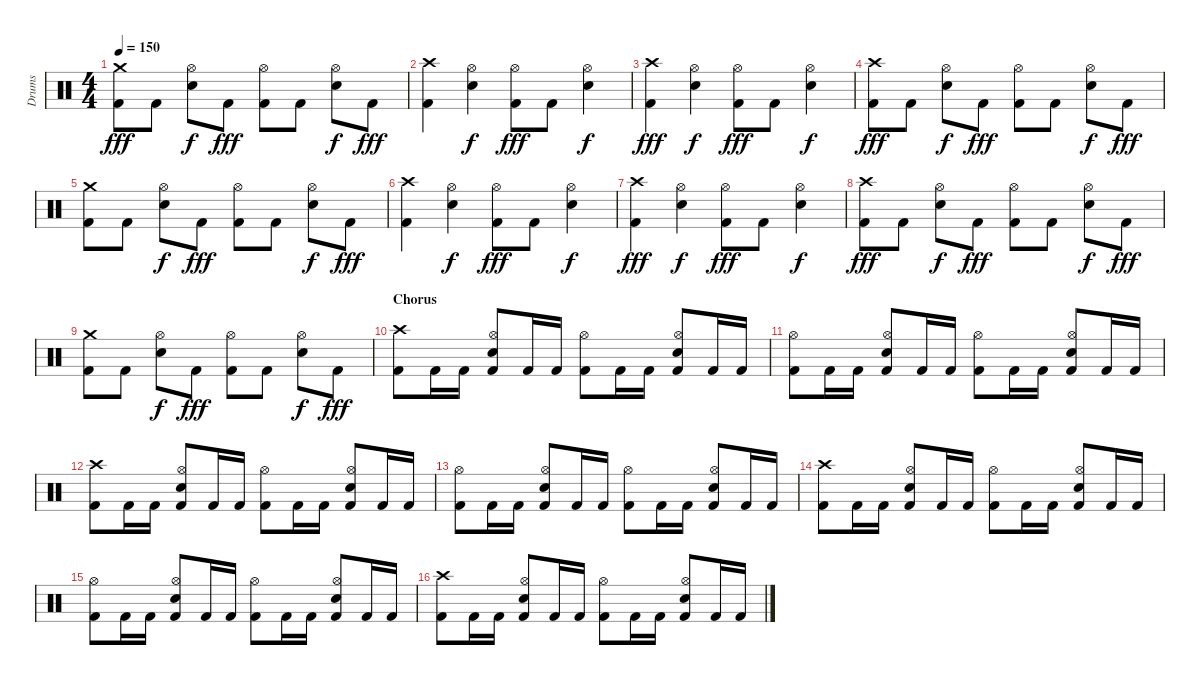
\track ("Drums" "Drums") {instrument percussion}
\staff {score}
\articulation defaults
\ts (4 4)
\tempo 150
\clef neutral
\ks c
("Crash medium (hit)" "Kick (hit) 2").8{dy fff} "Kick (hit) 2".8 ("Hi-Hat (open)" "Snare (hit) 2").8{dy f} "Kick (hit) 2".8{dy fff} ("Hi-Hat (open)" "Kick (hit) 2").8 "Kick (hit) 2".8 ("Hi-Hat (open)" "Snare (hit) 2").8{dy f} "Kick (hit) 2".8{dy fff} |
("Crash high (hit)" "Kick (hit) 2").4 ("Hi-Hat (open)" "Snare (hit) 2").4{dy f} ("Hi-Hat (open)" "Kick (hit) 2").8{dy fff} "Kick (hit) 2".8 ("Hi-Hat (open)" "Snare (hit) 2").4{dy f} |
("Crash high (hit)" "Kick (hit) 2").4{dy fff} ("Hi-Hat (open)" "Snare (hit) 2").4{dy f} ("Hi-Hat (open)" "Kick (hit) 2").8{dy fff} "Kick (hit) 2".8 ("Hi-Hat (open)" "Snare (hit) 2").4{dy f} |
("Crash high (hit)" "Kick (hit) 2").8{dy fff} "Kick (hit) 2".8 ("Hi-Hat (open)" "Snare (hit) 2").8{dy f} "Kick (hit) 2".8{dy fff} ("Hi-Hat (open)" "Kick (hit) 2").8 "Kick (hit) 2".8 ("Hi-Hat (open)" "Snare (hit) 2").8{dy f} "Kick (hit) 2".8{dy fff} |
("Crash medium (hit)" "Kick (hit) 2").8 "Kick (hit) 2".8 ("Hi-Hat (open)" "Snare (hit) 2").8{dy f} "Kick (hit) 2".8{dy fff} ("Hi-Hat (open)" "Kick (hit) 2").8 "Kick (hit) 2".8 ("Hi-Hat (open)" "Snare (hit) 2").8{dy f} "Kick (hit) 2".8{dy fff} |
("Crash high (hit)" "Kick (hit) 2").4 ("Hi-Hat (open)" "Snare (hit) 2").4{dy f} ("Hi-Hat (open)" "Kick (hit) 2").8{dy fff} "Kick (hit) 2".8 ("Hi-Hat (open)" "Snare (hit) 2").4{dy f} |
("Crash high (hit)" "Kick (hit) 2").4{dy fff} ("Hi-Hat (open)" "Snare (hit) 2").4{dy f} ("Hi-Hat (open)" "Kick (hit) 2").8{dy fff} "Kick (hit) 2".8 ("Hi-Hat (open)" "Snare (hit) 2").4{dy f} |
("Crash high (hit)" "Kick (hit) 2").8{dy fff} "Kick (hit) 2".8 ("Hi-Hat (open)" "Snare (hit) 2").8{dy f} "Kick (hit) 2".8{dy fff} ("Hi-Hat (open)" "Kick (hit) 2").8 "Kick (hit) 2".8 ("Hi-Hat (open)" "Snare (hit) 2").8{dy f} "Kick (hit) 2".8{dy fff} |
("Crash medium (hit)" "Kick (hit) 2").8 "Kick (hit) 2".8 ("Hi-Hat (open)" "Snare (hit) 2").8{dy f} "Kick (hit) 2".8{dy fff} ("Hi-Hat (open)" "Kick (hit) 2").8 "Kick (hit) 2".8 ("Hi-Hat (open)" "Snare (hit) 2").8{dy f} "Kick (hit) 2".8{dy fff} |
\section ("" "Chorus")
("Crash high (hit)" "Kick (hit) 2").8 "Kick (hit) 2".16 "Kick (hit) 2".16 ("Hi-Hat (open)" "Snare (hit) 2" "Kick (hit) 2").8 "Kick (hit) 2".16 "Kick (hit) 2".16 ("Hi-Hat (open)" "Kick (hit) 2").8 "Kick (hit) 2".16 "Kick (hit) 2".16 ("Hi-Hat (open)" "Snare (hit) 2" "Kick (hit) 2").8 "Kick (hit) 2".16 "Kick (hit) 2".16 |
("Hi-Hat (open)" "Kick (hit) 2").8 "Kick (hit) 2".16 "Kick (hit) 2".16 ("Hi-Hat (open)" "Snare (hit) 2" "Kick (hit) 2").8 "Kick (hit) 2".16 "Kick (hit) 2".16 ("Hi-Hat (open)" "Kick (hit) 2").8 "Kick (hit) 2".16 "Kick (hit) 2".16 ("Hi-Hat (open)" "Snare (hit) 2" "Kick (hit) 2").8 "Kick (hit) 2".16 "Kick (hit) 2".16 |
("Crash high (hit)" "Kick (hit) 2").8 "Kick (hit) 2".16 "Kick (hit) 2".16 ("Hi-Hat (open)" "Snare (hit) 2" "Kick (hit) 2").8 "Kick (hit) 2".16 "Kick (hit) 2".16 ("Hi-Hat (open)" "Kick (hit) 2").8 "Kick (hit) 2".16 "Kick (hit) 2".16 ("Hi-Hat (open)" "Snare (hit) 2" "Kick (hit) 2").8 "Kick (hit) 2".16 "Kick (hit) 2".16 |
("Hi-Hat (open)" "Kick (hit) 2").8 "Kick (hit) 2".16 "Kick (hit) 2".16 ("Hi-Hat (open)" "Snare (hit) 2" "Kick (hit) 2").8 "Kick (hit) 2".16 "Kick (hit) 2".16 ("Hi-Hat (open)" "Kick (hit) 2").8 "Kick (hit) 2".16 "Kick (hit) 2".16 ("Hi-Hat (open)" "Snare (hit) 2" "Kick (hit) 2").8 "Kick (hit) 2".16 "Kick (hit) 2".16 |
("Crash high (hit)" "Kick (hit) 2").8 "Kick (hit) 2".16 "Kick (hit) 2".16 ("Hi-Hat (open)" "Snare (hit) 2" "Kick (hit) 2").8 "Kick (hit) 2".16 "Kick (hit) 2".16 ("Hi-Hat (open)" "Kick (hit) 2").8 "Kick (hit) 2".16 "Kick (hit) 2".16 ("Hi-Hat (open)" "Snare (hit) 2" "Kick (hit) 2").8 "Kick (hit) 2".16 "Kick (hit) 2".16 |
("Hi-Hat (open)" "Kick (hit) 2").8 "Kick (hit) 2".16 "Kick (hit) 2".16 ("Hi-Hat (open)" "Snare (hit) 2" "Kick (hit) 2").8 "Kick (hit) 2".16 "Kick (hit) 2".16 ("Hi-Hat (open)" "Kick (hit) 2").8 "Kick (hit) 2".16 "Kick (hit) 2".16 ("Hi-Hat (open)" "Snare (hit) 2" "Kick (hit) 2").8 "Kick (hit) 2".16 "Kick (hit) 2".16 |
("Crash high (hit)" "Kick (hit) 2").8 "Kick (hit) 2".16 "Kick (hit) 2".16 ("Hi-Hat (open)" "Snare (hit) 2" "Kick (hit) 2").8 "Kick (hit) 2".16 "Kick (hit) 2".16 ("Hi-Hat (open)" "Kick (hit) 2").8 "Kick (hit) 2".16 "Kick (hit) 2".16 ("Hi-Hat (open)" "Snare (hit) 2" "Kick (hit) 2").8 "Kick (hit) 2".16 "Kick (hit) 2".16
